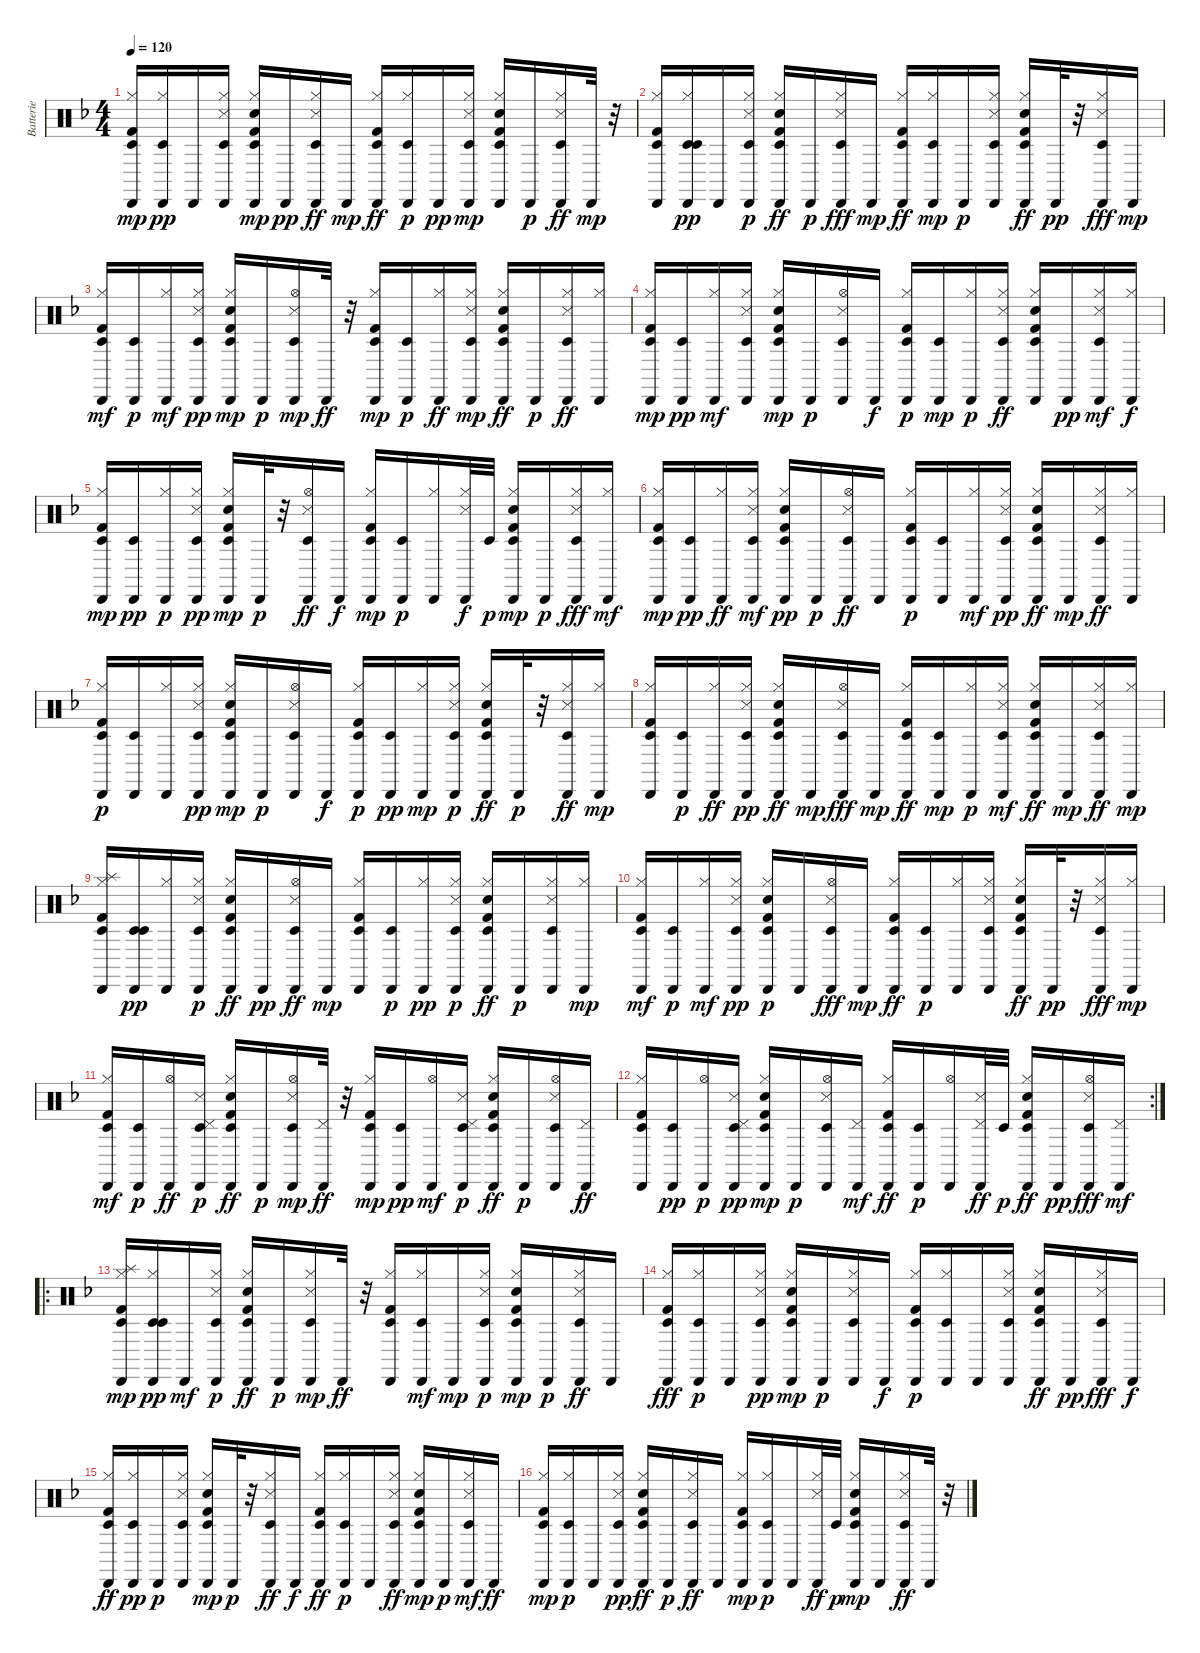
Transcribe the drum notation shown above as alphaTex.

\track ("Batterie" "Batterie") {instrument percussion}
\staff {score}
\articulation defaults
\ts (4 4)
\tempo 120
\clef neutral
\ks f
("Kick (hit) 2" "Cabasa (hit)" "Hi-Hat (closed)" "Timbale low (hit)").16{dy mp} ("Hi-Hat (closed)" "Timbale low (hit)" "Cabasa (hit)").16{dy pp} "Cabasa (hit)".16 ("Snare (side stick) 3" "Cabasa (hit)" "Hi-Hat (closed)" "Timbale low (hit)").16 ("Timbale low (hit)" "Kick (hit) 2" "Hi-Hat (closed)" "Cabasa (hit)" "Hand Clap (hit)").16{dy mp} "Cabasa (hit)".16{dy pp} ("Cabasa (hit)" "Timbale low (hit)" "Snare (side stick) 3" "Hi-Hat (closed)").16{dy ff} "Cabasa (hit)".16{dy mp} ("Timbale low (hit)" "Kick (hit) 2" "Cabasa (hit)" "Hi-Hat (closed)").16{dy ff} ("Hi-Hat (closed)" "Timbale low (hit)" "Cabasa (hit)").16{dy p} "Cabasa (hit)".16{dy pp} ("Snare (side stick) 3" "Timbale low (hit)" "Cabasa (hit)" "Hi-Hat (closed)").16{dy mp} ("Timbale low (hit)" "Kick (hit) 2" "Hand Clap (hit)" "Cabasa (hit)" "Hi-Hat (closed)").16 "Cabasa (hit)".16{dy p} ("Cabasa (hit)" "Hi-Hat (closed)" "Snare (side stick) 3" "Timbale low (hit)").16{dy ff} "Cabasa (hit)".32{dy mp} r.32 |
("Kick (hit) 2" "Cabasa (hit)" "Hi-Hat (closed)" "Timbale low (hit)").16 ("Hi-Hat (closed)" "Cabasa (hit)" "Timbale low (hit)" "Timbale low (hit)").16{dy pp} "Cabasa (hit)".16 ("Cabasa (hit)" "Snare (side stick) 3" "Hi-Hat (closed)" "Timbale low (hit)").16{dy p} ("Timbale low (hit)" "Hi-Hat (closed)" "Kick (hit) 2" "Cabasa (hit)" "Hand Clap (hit)").16{dy ff} "Cabasa (hit)".16{dy p} ("Timbale low (hit)" "Cabasa (hit)" "Hi-Hat (closed)" "Snare (side stick) 3").16{dy fff} "Cabasa (hit)".16{dy mp} ("Timbale low (hit)" "Kick (hit) 2" "Cabasa (hit)" "Hi-Hat (closed)").16{dy ff} ("Hi-Hat (closed)" "Timbale low (hit)" "Cabasa (hit)").16{dy mp} "Cabasa (hit)".16{dy p} ("Hi-Hat (closed)" "Cabasa (hit)" "Snare (side stick) 3" "Timbale low (hit)").16 ("Hi-Hat (closed)" "Timbale low (hit)" "Kick (hit) 2" "Cabasa (hit)" "Hand Clap (hit)").16{dy ff} "Cabasa (hit)".32{dy pp} r.32 ("Cabasa (hit)" "Hi-Hat (closed)" "Timbale low (hit)" "Snare (side stick) 3").16{dy fff} "Cabasa (hit)".16{dy mp} |
("Hi-Hat (closed)" "Kick (hit) 2" "Cabasa (hit)" "Timbale low (hit)").16{dy mf} ("Cabasa (hit)" "Timbale low (hit)").16{dy p} ("Cabasa (hit)" "Hi-Hat (closed)").16{dy mf} ("Cabasa (hit)" "Snare (side stick) 3" "Hi-Hat (closed)" "Timbale low (hit)").16{dy pp} ("Hand Clap (hit)" "Cabasa (hit)" "Kick (hit) 2" "Hi-Hat (closed)" "Timbale low (hit)").16{dy mp} "Cabasa (hit)".16{dy p} ("Cabasa (hit)" "Hi-Hat (open)" "Snare (side stick) 3" "Timbale low (hit)").16{dy mp} "Cabasa (hit)".32{dy ff} r.32 ("Hi-Hat (closed)" "Cabasa (hit)" "Kick (hit) 2" "Timbale low (hit)").16{dy mp} ("Cabasa (hit)" "Timbale low (hit)").16{dy p} ("Cabasa (hit)" "Hi-Hat (closed)").16{dy ff} ("Snare (side stick) 3" "Cabasa (hit)" "Timbale low (hit)" "Hi-Hat (closed)").16{dy mp} ("Timbale low (hit)" "Cabasa (hit)" "Hand Clap (hit)" "Hi-Hat (closed)" "Kick (hit) 2").16{dy ff} "Cabasa (hit)".16{dy p} ("Timbale low (hit)" "Cabasa (hit)" "Snare (side stick) 3" "Hi-Hat (closed)").16{dy ff} ("Cabasa (hit)" "Hi-Hat (closed)").16 |
("Timbale low (hit)" "Cabasa (hit)" "Kick (hit) 2" "Hi-Hat (closed)").16{dy mp} ("Timbale low (hit)" "Cabasa (hit)").16{dy pp} ("Cabasa (hit)" "Hi-Hat (closed)").16{dy mf} ("Cabasa (hit)" "Snare (side stick) 3" "Timbale low (hit)" "Hi-Hat (closed)").16 ("Timbale low (hit)" "Kick (hit) 2" "Cabasa (hit)" "Hand Clap (hit)" "Hi-Hat (closed)").16{dy mp} "Cabasa (hit)".16{dy p} ("Hi-Hat (open)" "Timbale low (hit)" "Cabasa (hit)" "Snare (side stick) 3").16 "Cabasa (hit)".16{dy f} ("Timbale low (hit)" "Kick (hit) 2" "Hi-Hat (closed)" "Cabasa (hit)").16{dy p} ("Timbale low (hit)" "Cabasa (hit)").16{dy mp} ("Hi-Hat (closed)" "Cabasa (hit)").16{dy p} ("Cabasa (hit)" "Timbale low (hit)" "Hi-Hat (closed)" "Snare (side stick) 3").16{dy ff} ("Timbale low (hit)" "Hi-Hat (closed)" "Cabasa (hit)" "Kick (hit) 2" "Hand Clap (hit)").16 "Cabasa (hit)".16{dy pp} ("Cabasa (hit)" "Timbale low (hit)" "Snare (side stick) 3" "Hi-Hat (closed)").16{dy mf} ("Cabasa (hit)" "Hi-Hat (closed)").16{dy f} |
("Kick (hit) 2" "Cabasa (hit)" "Hi-Hat (closed)" "Timbale low (hit)").16{dy mp} ("Timbale low (hit)" "Cabasa (hit)").16{dy pp} ("Cabasa (hit)" "Hi-Hat (closed)").16{dy p} ("Cabasa (hit)" "Snare (side stick) 3" "Hi-Hat (closed)" "Timbale low (hit)").16{dy pp} ("Kick (hit) 2" "Timbale low (hit)" "Cabasa (hit)" "Hi-Hat (closed)" "Hand Clap (hit)").16{dy mp} "Cabasa (hit)".32{dy p} r.32 ("Cabasa (hit)" "Snare (side stick) 3" "Timbale low (hit)" "Hi-Hat (open)").16{dy ff} "Cabasa (hit)".16{dy f} ("Kick (hit) 2" "Cabasa (hit)" "Timbale low (hit)" "Hi-Hat (closed)").16{dy mp} ("Cabasa (hit)" "Timbale low (hit)").16{dy p} ("Hi-Hat (closed)" "Cabasa (hit)").16 ("Hi-Hat (closed)" "Cabasa (hit)" "Snare (side stick) 3").32{dy f} "Timbale low (hit)".32{dy p} ("Hi-Hat (closed)" "Kick (hit) 2" "Hand Clap (hit)" "Timbale low (hit)" "Cabasa (hit)").16{dy mp} "Cabasa (hit)".16{dy p} ("Cabasa (hit)" "Hi-Hat (closed)" "Snare (side stick) 3" "Timbale low (hit)").16{dy fff} ("Cabasa (hit)" "Hi-Hat (closed)").16{dy mf} |
("Cabasa (hit)" "Kick (hit) 2" "Hi-Hat (closed)" "Timbale low (hit)").16{dy mp} ("Cabasa (hit)" "Timbale low (hit)").16{dy pp} ("Cabasa (hit)" "Hi-Hat (closed)").16{dy ff} ("Cabasa (hit)" "Timbale low (hit)" "Snare (side stick) 3" "Hi-Hat (closed)").16{dy mf} ("Timbale low (hit)" "Cabasa (hit)" "Kick (hit) 2" "Hand Clap (hit)" "Hi-Hat (closed)").16{dy pp} "Cabasa (hit)".16{dy p} ("Hi-Hat (open)" "Cabasa (hit)" "Snare (side stick) 3" "Timbale low (hit)").16{dy ff} "Cabasa (hit)".16 ("Timbale low (hit)" "Kick (hit) 2" "Cabasa (hit)" "Hi-Hat (closed)").16{dy p} ("Timbale low (hit)" "Cabasa (hit)").16 ("Cabasa (hit)" "Hi-Hat (closed)").16{dy mf} ("Cabasa (hit)" "Hi-Hat (closed)" "Timbale low (hit)" "Snare (side stick) 3").16{dy pp} ("Timbale low (hit)" "Hi-Hat (closed)" "Cabasa (hit)" "Kick (hit) 2" "Hand Clap (hit)").16{dy ff} "Cabasa (hit)".16{dy mp} ("Cabasa (hit)" "Hi-Hat (closed)" "Timbale low (hit)" "Snare (side stick) 3").16{dy ff} ("Cabasa (hit)" "Hi-Hat (closed)").16 |
("Kick (hit) 2" "Hi-Hat (closed)" "Cabasa (hit)" "Timbale low (hit)").16{dy p} ("Timbale low (hit)" "Cabasa (hit)").16 ("Hi-Hat (closed)" "Cabasa (hit)").16 ("Cabasa (hit)" "Snare (side stick) 3" "Hi-Hat (closed)" "Timbale low (hit)").16{dy pp} ("Timbale low (hit)" "Kick (hit) 2" "Hi-Hat (closed)" "Cabasa (hit)" "Hand Clap (hit)").16{dy mp} "Cabasa (hit)".16{dy p} ("Hi-Hat (open)" "Timbale low (hit)" "Snare (side stick) 3" "Cabasa (hit)").16 "Cabasa (hit)".16{dy f} ("Timbale low (hit)" "Kick (hit) 2" "Cabasa (hit)" "Hi-Hat (closed)").16{dy p} ("Timbale low (hit)" "Cabasa (hit)").16{dy pp} ("Cabasa (hit)" "Hi-Hat (closed)").16{dy mp} ("Cabasa (hit)" "Hi-Hat (closed)" "Snare (side stick) 3" "Timbale low (hit)").16{dy p} ("Timbale low (hit)" "Hi-Hat (closed)" "Kick (hit) 2" "Cabasa (hit)" "Hand Clap (hit)").16{dy ff} "Cabasa (hit)".32{dy p} r.32 ("Cabasa (hit)" "Snare (side stick) 3" "Hi-Hat (closed)" "Timbale low (hit)").16{dy ff} ("Cabasa (hit)" "Hi-Hat (closed)").16{dy mp} |
("Kick (hit) 2" "Hi-Hat (closed)" "Cabasa (hit)" "Timbale low (hit)").16 ("Timbale low (hit)" "Cabasa (hit)").16{dy p} ("Cabasa (hit)" "Hi-Hat (closed)").16{dy ff} ("Cabasa (hit)" "Snare (side stick) 3" "Hi-Hat (closed)" "Timbale low (hit)").16{dy pp} ("Timbale low (hit)" "Hi-Hat (closed)" "Cabasa (hit)" "Kick (hit) 2" "Hand Clap (hit)").16{dy ff} "Cabasa (hit)".16{dy mp} ("Hi-Hat (open)" "Cabasa (hit)" "Timbale low (hit)" "Snare (side stick) 3").16{dy fff} "Cabasa (hit)".16{dy mp} ("Hi-Hat (closed)" "Timbale low (hit)" "Cabasa (hit)" "Kick (hit) 2").16{dy ff} ("Timbale low (hit)" "Cabasa (hit)").16{dy mp} ("Hi-Hat (closed)" "Cabasa (hit)").16{dy p} ("Timbale low (hit)" "Hi-Hat (closed)" "Cabasa (hit)" "Snare (side stick) 3").16{dy mf} ("Hi-Hat (closed)" "Timbale low (hit)" "Kick (hit) 2" "Cabasa (hit)" "Hand Clap (hit)").16{dy ff} "Cabasa (hit)".16{dy mp} ("Hi-Hat (closed)" "Cabasa (hit)" "Timbale low (hit)" "Snare (side stick) 3").16{dy ff} ("Hi-Hat (closed)" "Cabasa (hit)").16{dy mp} |
("Kick (hit) 2" "Hi-Hat (closed)" "Splash (hit)" "Cabasa (hit)" "Timbale low (hit)").16 ("Cabasa (hit)" "Timbale low (hit)" "Timbale low (hit)").16{dy pp} ("Hi-Hat (closed)" "Cabasa (hit)").16 ("Hi-Hat (closed)" "Snare (side stick) 3" "Cabasa (hit)" "Timbale low (hit)").16{dy p} ("Timbale low (hit)" "Hi-Hat (closed)" "Kick (hit) 2" "Cabasa (hit)" "Hand Clap (hit)").16{dy ff} "Cabasa (hit)".16{dy pp} ("Hi-Hat (open)" "Timbale low (hit)" "Cabasa (hit)" "Snare (side stick) 3").16{dy ff} "Cabasa (hit)".16{dy mp} ("Timbale low (hit)" "Kick (hit) 2" "Hi-Hat (closed)" "Cabasa (hit)").16 ("Timbale low (hit)" "Cabasa (hit)").16{dy p} ("Hi-Hat (closed)" "Cabasa (hit)").16{dy pp} ("Hi-Hat (closed)" "Snare (side stick) 3" "Cabasa (hit)" "Timbale low (hit)").16{dy p} ("Hi-Hat (closed)" "Timbale low (hit)" "Kick (hit) 2" "Hand Clap (hit)" "Cabasa (hit)").16{dy ff} "Cabasa (hit)".16{dy p} ("Cabasa (hit)" "Hi-Hat (closed)" "Snare (side stick) 3" "Timbale low (hit)").16 ("Cabasa (hit)" "Hi-Hat (closed)").16{dy mp} |
("Kick (hit) 2" "Cabasa (hit)" "Hi-Hat (closed)" "Timbale low (hit)").16{dy mf} ("Cabasa (hit)" "Timbale low (hit)").16{dy p} ("Cabasa (hit)" "Hi-Hat (closed)").16{dy mf} ("Cabasa (hit)" "Snare (side stick) 3" "Hi-Hat (closed)" "Timbale low (hit)").16{dy pp} ("Kick (hit) 2" "Cabasa (hit)" "Timbale low (hit)" "Hand Clap (hit)" "Hi-Hat (closed)").16{dy p} "Cabasa (hit)".16 ("Cabasa (hit)" "Hi-Hat (open)" "Snare (side stick) 3" "Timbale low (hit)").16{dy fff} "Cabasa (hit)".16{dy mp} ("Hi-Hat (closed)" "Kick (hit) 2" "Timbale low (hit)" "Cabasa (hit)").16{dy ff} ("Cabasa (hit)" "Timbale low (hit)").16{dy p} ("Hi-Hat (closed)" "Cabasa (hit)").16 ("Hi-Hat (closed)" "Cabasa (hit)" "Snare (side stick) 3" "Timbale low (hit)").16 ("Timbale low (hit)" "Hi-Hat (closed)" "Kick (hit) 2" "Cabasa (hit)" "Hand Clap (hit)").16{dy ff} "Cabasa (hit)".32{dy pp} r.32 ("Timbale low (hit)" "Hi-Hat (closed)" "Cabasa (hit)" "Snare (side stick) 3").16{dy fff} ("Hi-Hat (closed)" "Cabasa (hit)").16{dy mp} |
("Timbale low (hit)" "Hi-Hat (closed)" "Kick (hit) 2" "Cabasa (hit)").16{dy mf} ("Timbale low (hit)" "Cabasa (hit)").16{dy p} ("Cabasa (hit)" "Hi-Hat (open)").16{dy ff} ("Cabasa (hit)" "Snare (side stick) 3" "Pedal Hi-Hat (hit)" "Timbale low (hit)").16{dy p} ("Hi-Hat (closed)" "Hand Clap (hit)" "Timbale low (hit)" "Cabasa (hit)" "Kick (hit) 2").16{dy ff} "Cabasa (hit)".16{dy p} ("Cabasa (hit)" "Timbale low (hit)" "Snare (side stick) 3" "Hi-Hat (open)").16{dy mp} ("Pedal Hi-Hat (hit)" "Cabasa (hit)").32{dy ff} r.32 ("Hi-Hat (closed)" "Timbale low (hit)" "Cabasa (hit)" "Kick (hit) 2").16{dy mp} ("Timbale low (hit)" "Cabasa (hit)").16{dy pp} ("Cabasa (hit)" "Hi-Hat (open)").16{dy mf} ("Pedal Hi-Hat (hit)" "Snare (side stick) 3" "Cabasa (hit)" "Timbale low (hit)").16{dy p} ("Timbale low (hit)" "Cabasa (hit)" "Hand Clap (hit)" "Kick (hit) 2" "Hi-Hat (closed)").16{dy ff} "Cabasa (hit)".16{dy p} ("Cabasa (hit)" "Snare (side stick) 3" "Timbale low (hit)" "Hi-Hat (open)").16 ("Pedal Hi-Hat (hit)" "Cabasa (hit)").16{dy ff} |
\rc 2
("Cabasa (hit)" "Kick (hit) 2" "Timbale low (hit)" "Hi-Hat (closed)").16 ("Timbale low (hit)" "Cabasa (hit)").16{dy pp} ("Cabasa (hit)" "Hi-Hat (open)").16{dy p} ("Pedal Hi-Hat (hit)" "Cabasa (hit)" "Snare (side stick) 3" "Timbale low (hit)").16{dy pp} ("Kick (hit) 2" "Timbale low (hit)" "Cabasa (hit)" "Hand Clap (hit)" "Hi-Hat (closed)").16{dy mp} "Cabasa (hit)".16{dy p} ("Hi-Hat (open)" "Cabasa (hit)" "Timbale low (hit)" "Snare (side stick) 3").16 ("Pedal Hi-Hat (hit)" "Cabasa (hit)").16{dy mf} ("Kick (hit) 2" "Cabasa (hit)" "Timbale low (hit)" "Hi-Hat (closed)").16{dy ff} ("Cabasa (hit)" "Timbale low (hit)").16{dy p} ("Hi-Hat (open)" "Cabasa (hit)").16 ("Cabasa (hit)" "Pedal Hi-Hat (hit)" "Snare (side stick) 3").32{dy ff} "Timbale low (hit)".32{dy p} ("Cabasa (hit)" "Kick (hit) 2" "Timbale low (hit)" "Hi-Hat (closed)" "Hand Clap (hit)").16{dy ff} "Cabasa (hit)".16{dy pp} ("Hi-Hat (open)" "Cabasa (hit)" "Snare (side stick) 3" "Timbale low (hit)").16{dy fff} ("Pedal Hi-Hat (hit)" "Cabasa (hit)").16{dy mf} |
\ro
("Hi-Hat (closed)" "Splash (hit)" "Kick (hit) 2" "Cabasa (hit)" "Timbale low (hit)").16{dy mp} ("Hi-Hat (closed)" "Cabasa (hit)" "Timbale low (hit)" "Timbale low (hit)").16{dy pp} "Cabasa (hit)".16{dy mf} ("Cabasa (hit)" "Snare (side stick) 3" "Hi-Hat (closed)" "Timbale low (hit)").16{dy p} ("Timbale low (hit)" "Hand Clap (hit)" "Hi-Hat (closed)" "Cabasa (hit)" "Kick (hit) 2").16{dy ff} "Cabasa (hit)".16{dy p} ("Timbale low (hit)" "Cabasa (hit)" "Snare (side stick) 3" "Hi-Hat (closed)").16{dy mp} "Cabasa (hit)".32{dy ff} r.32 ("Timbale low (hit)" "Cabasa (hit)" "Kick (hit) 2" "Hi-Hat (closed)").16 ("Timbale low (hit)" "Cabasa (hit)" "Hi-Hat (closed)").16{dy mf} "Cabasa (hit)".16{dy mp} ("Snare (side stick) 3" "Cabasa (hit)" "Timbale low (hit)" "Hi-Hat (closed)").16{dy p} ("Timbale low (hit)" "Cabasa (hit)" "Hand Clap (hit)" "Kick (hit) 2" "Hi-Hat (closed)").16{dy mp} "Cabasa (hit)".16{dy p} ("Cabasa (hit)" "Snare (side stick) 3" "Timbale low (hit)" "Hi-Hat (closed)").16{dy ff} "Cabasa (hit)".16 |
("Cabasa (hit)" "Kick (hit) 2" "Timbale low (hit)" "Hi-Hat (closed)").16{dy fff} ("Hi-Hat (closed)" "Cabasa (hit)" "Timbale low (hit)").16{dy p} "Cabasa (hit)".16 ("Cabasa (hit)" "Snare (side stick) 3" "Hi-Hat (closed)" "Timbale low (hit)").16{dy pp} ("Kick (hit) 2" "Hi-Hat (closed)" "Cabasa (hit)" "Hand Clap (hit)" "Timbale low (hit)").16{dy mp} "Cabasa (hit)".16{dy p} ("Hi-Hat (closed)" "Cabasa (hit)" "Snare (side stick) 3" "Timbale low (hit)").16 "Cabasa (hit)".16{dy f} ("Kick (hit) 2" "Timbale low (hit)" "Hi-Hat (closed)" "Cabasa (hit)").16{dy p} ("Hi-Hat (closed)" "Cabasa (hit)" "Timbale low (hit)").16 "Cabasa (hit)".16 ("Cabasa (hit)" "Hi-Hat (closed)" "Snare (side stick) 3" "Timbale low (hit)").16 ("Timbale low (hit)" "Hi-Hat (closed)" "Cabasa (hit)" "Kick (hit) 2" "Hand Clap (hit)").16{dy ff} "Cabasa (hit)".16{dy pp} ("Timbale low (hit)" "Cabasa (hit)" "Hi-Hat (closed)" "Snare (side stick) 3").16{dy fff} "Cabasa (hit)".16{dy f} |
("Kick (hit) 2" "Timbale low (hit)" "Cabasa (hit)" "Hi-Hat (closed)").16{dy ff} ("Hi-Hat (closed)" "Timbale low (hit)" "Cabasa (hit)").16{dy pp} "Cabasa (hit)".16{dy p} ("Cabasa (hit)" "Snare (side stick) 3" "Timbale low (hit)" "Hi-Hat (closed)").16 ("Timbale low (hit)" "Kick (hit) 2" "Hi-Hat (closed)" "Cabasa (hit)" "Hand Clap (hit)").16{dy mp} "Cabasa (hit)".32{dy p} r.32 ("Cabasa (hit)" "Timbale low (hit)" "Snare (side stick) 3" "Hi-Hat (closed)").16{dy ff} "Cabasa (hit)".16{dy f} ("Timbale low (hit)" "Kick (hit) 2" "Cabasa (hit)" "Hi-Hat (closed)").16{dy ff} ("Timbale low (hit)" "Hi-Hat (closed)" "Cabasa (hit)").16{dy p} "Cabasa (hit)".16 ("Timbale low (hit)" "Cabasa (hit)" "Snare (side stick) 3" "Hi-Hat (closed)").16{dy ff} ("Timbale low (hit)" "Hi-Hat (closed)" "Kick (hit) 2" "Hand Clap (hit)" "Cabasa (hit)").16{dy mp} "Cabasa (hit)".16{dy p} ("Cabasa (hit)" "Timbale low (hit)" "Snare (side stick) 3" "Hi-Hat (closed)").16{dy mf} "Cabasa (hit)".16{dy ff} |
("Cabasa (hit)" "Kick (hit) 2" "Timbale low (hit)" "Hi-Hat (closed)").16{dy mp} ("Hi-Hat (closed)" "Timbale low (hit)" "Cabasa (hit)").16{dy p} "Cabasa (hit)".16 ("Cabasa (hit)" "Snare (side stick) 3" "Hi-Hat (closed)" "Timbale low (hit)").16{dy pp} ("Hi-Hat (closed)" "Timbale low (hit)" "Cabasa (hit)" "Kick (hit) 2" "Hand Clap (hit)").16{dy ff} "Cabasa (hit)".16{dy p} ("Cabasa (hit)" "Timbale low (hit)" "Snare (side stick) 3" "Hi-Hat (closed)").16{dy ff} "Cabasa (hit)".16 ("Kick (hit) 2" "Cabasa (hit)" "Timbale low (hit)" "Hi-Hat (closed)").16{dy mp} ("Cabasa (hit)" "Hi-Hat (closed)" "Timbale low (hit)").16{dy p} "Cabasa (hit)".16 ("Cabasa (hit)" "Snare (side stick) 3" "Hi-Hat (closed)").32{dy ff} "Timbale low (hit)".32{dy p} ("Cabasa (hit)" "Kick (hit) 2" "Timbale low (hit)" "Hi-Hat (closed)" "Hand Clap (hit)").16{dy mp} "Cabasa (hit)".16 ("Cabasa (hit)" "Hi-Hat (closed)" "Snare (side stick) 3" "Timbale low (hit)").16{dy ff} "Cabasa (hit)".32 r.32
